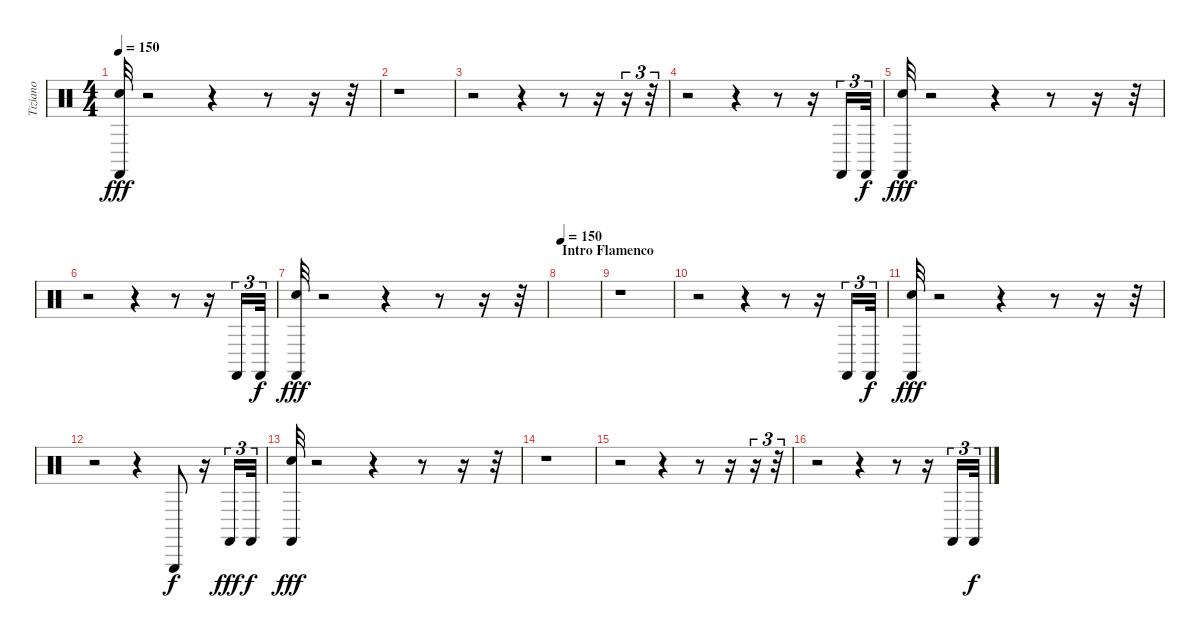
\track ("Tiziano" "Tiziano") {instrument percussion}
\staff {score}
\articulation defaults
\ts (4 4)
\tempo 150
\clef neutral
\ks c
("Hand Clap (hit)" "Castanets (hit)").32{dy fff} r.2 r.4 r.8 r.16 r.32 |
r.1 |
r.2 r.4 r.8 r.16 r.16{tu (3 2)} r.32{tu (3 2)} |
r.2 r.4 r.8 r.16 "Castanets (hit)".16{tu (3 2)} "Castanets (hit)".32{tu (3 2) dy f} |
("Hand Clap (hit)" "Castanets (hit)").32{dy fff} r.2 r.4 r.8 r.16 r.32 |
r.2 r.4 r.8 r.16 "Castanets (hit)".16{tu (3 2)} "Castanets (hit)".32{tu (3 2) dy f} |
("Hand Clap (hit)" "Castanets (hit)").32{dy fff} r.2 r.4 r.8 r.16 r.32 |
\section ("" "Intro Flamenco")
\tempo 150
|
r.1 |
r.2 r.4 r.8 r.16 "Castanets (hit)".16{tu (3 2)} "Castanets (hit)".32{tu (3 2) dy f} |
("Hand Clap (hit)" "Castanets (hit)").32{dy fff} r.2 r.4 r.8 r.16 r.32 |
r.2 r.4 "Triangle (hit)".8{dy f} r.16 "Castanets (hit)".16{tu (3 2) dy fff} "Castanets (hit)".32{tu (3 2) dy f} |
("Hand Clap (hit)" "Castanets (hit)").32{dy fff} r.2 r.4 r.8 r.16 r.32 |
r.1 |
r.2 r.4 r.8 r.16 r.16{tu (3 2)} r.32{tu (3 2)} |
r.2 r.4 r.8 r.16 "Castanets (hit)".16{tu (3 2)} "Castanets (hit)".32{tu (3 2) dy f}
